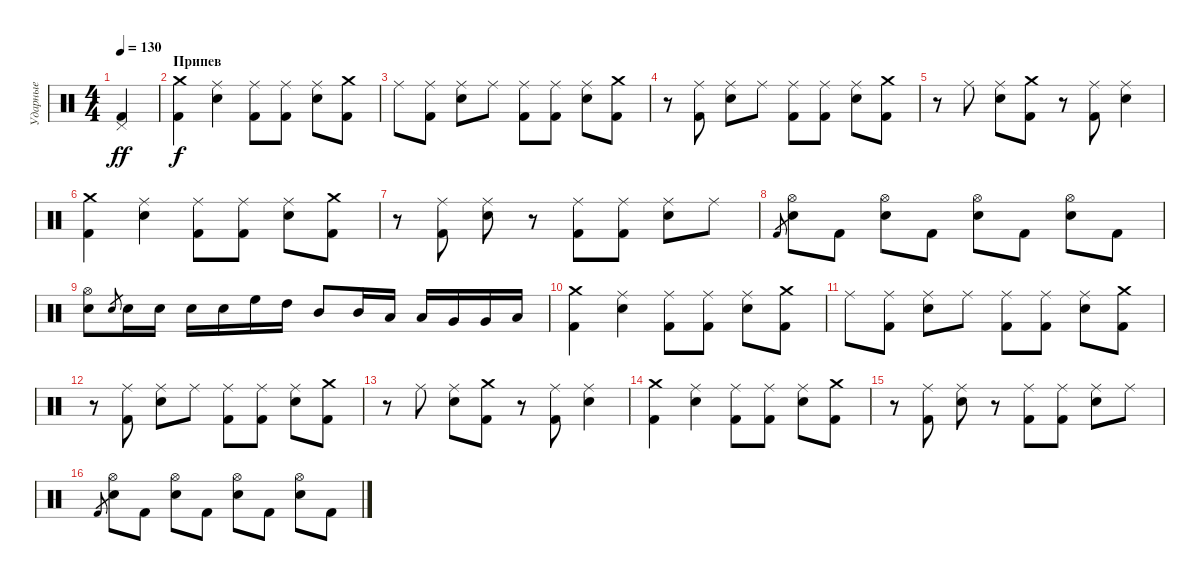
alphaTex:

\track ("Ударные" "Ударные") {instrument percussion}
\staff {score}
\articulation defaults
\ts (4 4)
\tempo 130
\clef neutral
\ks c
("Kick (hit) 2" "Pedal Hi-Hat (hit)").4{dy ff} |
\section ("" "Припев")
("Kick (hit) 2" "Crash medium (hit)").4{dy f} ("Electric Snare (hit)" "Ride (middle)").4 ("Kick (hit) 2" "Ride (middle)").8 ("Kick (hit) 2" "Ride (middle)").8 ("Electric Snare (hit)" "Ride (middle)").8 ("Kick (hit) 2" "Crash medium (hit)").8 |
"Ride (middle)".8 ("Kick (hit) 2" "Ride (middle)").8 ("Electric Snare (hit)" "Ride (middle)").8 "Ride (middle)".8 ("Kick (hit) 2" "Ride (middle)").8 ("Kick (hit) 2" "Ride (middle)").8 ("Electric Snare (hit)" "Ride (middle)").8 ("Kick (hit) 2" "Crash medium (hit)").8 |
r.8 ("Kick (hit) 2" "Ride (middle)").8 ("Electric Snare (hit)" "Ride (middle)").8 "Ride (middle)".8 ("Kick (hit) 2" "Ride (middle)").8 ("Kick (hit) 2" "Ride (middle)").8 ("Electric Snare (hit)" "Ride (middle)").8 ("Kick (hit) 2" "Crash medium (hit)").8 |
r.8 "Ride (middle)".8 ("Electric Snare (hit)" "Ride (middle)").8 ("Kick (hit) 2" "Crash medium (hit)").8 r.8 ("Kick (hit) 2" "Ride (middle)").8 ("Electric Snare (hit)" "Ride (middle)").4 |
("Kick (hit) 2" "Crash medium (hit)").4 ("Electric Snare (hit)" "Ride (middle)").4 ("Kick (hit) 2" "Ride (middle)").8 ("Kick (hit) 2" "Ride (middle)").8 ("Electric Snare (hit)" "Ride (middle)").8 ("Kick (hit) 2" "Crash medium (hit)").8 |
r.8 ("Kick (hit) 2" "Ride (middle)").8 ("Electric Snare (hit)" "Ride (middle)").8 r.8 ("Kick (hit) 2" "Ride (middle)").8 ("Kick (hit) 2" "Ride (middle)").8 ("Electric Snare (hit)" "Ride (middle)").8 "Ride (middle)".8 |
"Kick (hit) 2".8{gr} ("Electric Snare (hit)" "Hi-Hat (open)").8 "Kick (hit) 2".8 ("Electric Snare (hit)" "Hi-Hat (open)").8 "Kick (hit) 2".8 ("Electric Snare (hit)" "Hi-Hat (open)").8 "Kick (hit) 2".8 ("Electric Snare (hit)" "Hi-Hat (open)").8 "Kick (hit) 2".8 |
("Electric Snare (hit)" "Hi-Hat (open)").8 "Electric Snare (hit)".8{gr} "Electric Snare (hit)".16 "Electric Snare (hit)".16 "Electric Snare (hit)".16 "Electric Snare (hit)".16 "High Floor Tom (hit)".16 "High Tom (hit)".16 "Mid Tom (hit)".8 "Mid Tom (hit)".16 "Low Tom (hit)".16 "Low Tom (hit)".16 "Very Low Tom (hit)".16 "Very Low Tom (hit)".16 "Low Floor Tom (hit)".16 |
("Kick (hit) 2" "Crash medium (hit)").4 ("Electric Snare (hit)" "Ride (middle)").4 ("Kick (hit) 2" "Ride (middle)").8 ("Kick (hit) 2" "Ride (middle)").8 ("Electric Snare (hit)" "Ride (middle)").8 ("Kick (hit) 2" "Crash medium (hit)").8 |
"Ride (middle)".8 ("Kick (hit) 2" "Ride (middle)").8 ("Electric Snare (hit)" "Ride (middle)").8 "Ride (middle)".8 ("Kick (hit) 2" "Ride (middle)").8 ("Kick (hit) 2" "Ride (middle)").8 ("Electric Snare (hit)" "Ride (middle)").8 ("Kick (hit) 2" "Crash medium (hit)").8 |
r.8 ("Kick (hit) 2" "Ride (middle)").8 ("Electric Snare (hit)" "Ride (middle)").8 "Ride (middle)".8 ("Kick (hit) 2" "Ride (middle)").8 ("Kick (hit) 2" "Ride (middle)").8 ("Electric Snare (hit)" "Ride (middle)").8 ("Kick (hit) 2" "Crash medium (hit)").8 |
r.8 "Ride (middle)".8 ("Electric Snare (hit)" "Ride (middle)").8 ("Kick (hit) 2" "Crash medium (hit)").8 r.8 ("Kick (hit) 2" "Ride (middle)").8 ("Electric Snare (hit)" "Ride (middle)").4 |
("Kick (hit) 2" "Crash medium (hit)").4 ("Electric Snare (hit)" "Ride (middle)").4 ("Kick (hit) 2" "Ride (middle)").8 ("Kick (hit) 2" "Ride (middle)").8 ("Electric Snare (hit)" "Ride (middle)").8 ("Kick (hit) 2" "Crash medium (hit)").8 |
r.8 ("Kick (hit) 2" "Ride (middle)").8 ("Electric Snare (hit)" "Ride (middle)").8 r.8 ("Kick (hit) 2" "Ride (middle)").8 ("Kick (hit) 2" "Ride (middle)").8 ("Electric Snare (hit)" "Ride (middle)").8 "Ride (middle)".8 |
"Kick (hit) 2".8{gr} ("Electric Snare (hit)" "Hi-Hat (open)").8 "Kick (hit) 2".8 ("Electric Snare (hit)" "Hi-Hat (open)").8 "Kick (hit) 2".8 ("Electric Snare (hit)" "Hi-Hat (open)").8 "Kick (hit) 2".8 ("Electric Snare (hit)" "Hi-Hat (open)").8 "Kick (hit) 2".8
